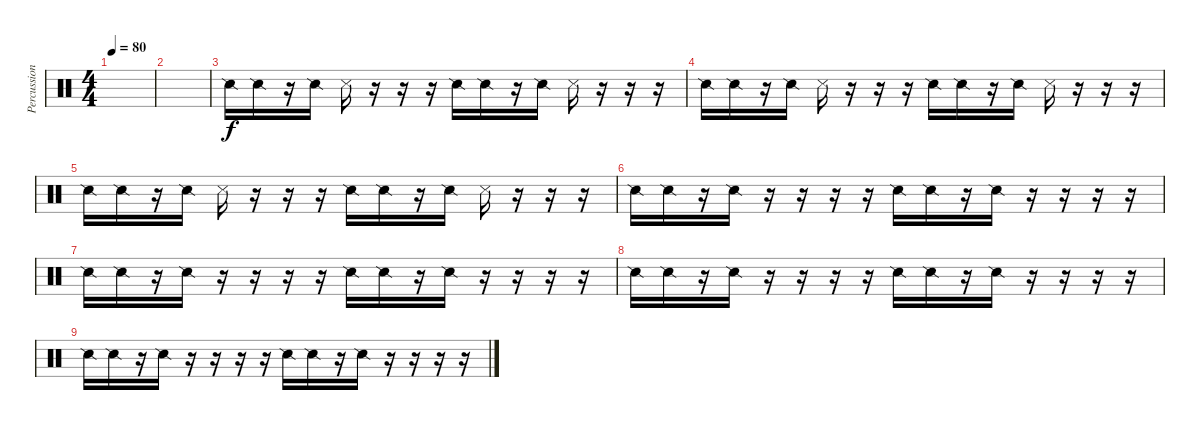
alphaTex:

\track ("Percussion" "Percussion") {instrument percussion}
\staff {score}
\articulation defaults
\ts (4 4)
\tempo 80
\clef neutral
\ks c
|
|
"Snare (side stick) 2".16 "Snare (side stick) 2".16 r.16 "Snare (side stick) 2".16 "Metronome (hit)".16 r.16 r.16 r.16 "Snare (side stick) 2".16 "Snare (side stick) 2".16 r.16 "Snare (side stick) 2".16 "Metronome (hit)".16 r.16 r.16 r.16 |
"Snare (side stick) 2".16 "Snare (side stick) 2".16 r.16 "Snare (side stick) 2".16 "Metronome (hit)".16 r.16 r.16 r.16 "Snare (side stick) 2".16 "Snare (side stick) 2".16 r.16 "Snare (side stick) 2".16 "Metronome (hit)".16 r.16 r.16 r.16 |
"Snare (side stick) 2".16 "Snare (side stick) 2".16 r.16 "Snare (side stick) 2".16 "Metronome (hit)".16 r.16 r.16 r.16 "Snare (side stick) 2".16 "Snare (side stick) 2".16 r.16 "Snare (side stick) 2".16 "Metronome (hit)".16 r.16 r.16 r.16 |
"Snare (side stick) 2".16 "Snare (side stick) 2".16 r.16 "Snare (side stick) 2".16 r.16 r.16 r.16 r.16 "Snare (side stick) 2".16 "Snare (side stick) 2".16 r.16 "Snare (side stick) 2".16 r.16 r.16 r.16 r.16 |
"Snare (side stick) 2".16 "Snare (side stick) 2".16 r.16 "Snare (side stick) 2".16 r.16 r.16 r.16 r.16 "Snare (side stick) 2".16 "Snare (side stick) 2".16 r.16 "Snare (side stick) 2".16 r.16 r.16 r.16 r.16 |
"Snare (side stick) 2".16 "Snare (side stick) 2".16 r.16 "Snare (side stick) 2".16 r.16 r.16 r.16 r.16 "Snare (side stick) 2".16 "Snare (side stick) 2".16 r.16 "Snare (side stick) 2".16 r.16 r.16 r.16 r.16 |
"Snare (side stick) 2".16 "Snare (side stick) 2".16 r.16 "Snare (side stick) 2".16 r.16 r.16 r.16 r.16 "Snare (side stick) 2".16 "Snare (side stick) 2".16 r.16 "Snare (side stick) 2".16 r.16 r.16 r.16 r.16
